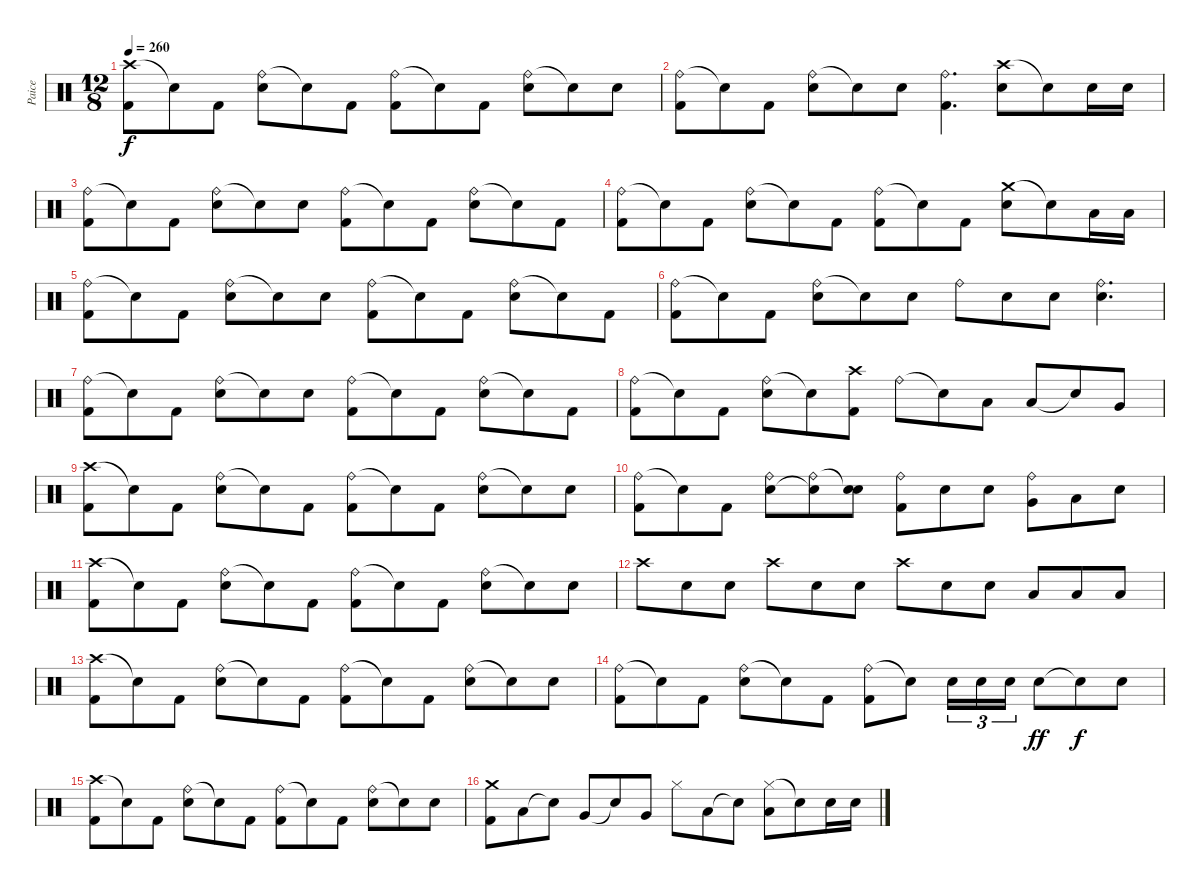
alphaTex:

\track ("Paice" "Paice") {instrument percussion}
\staff {score}
\articulation defaults
\ts (12 8)
\tempo 260
\clef neutral
\ks c
("Crash high (hit)" "Kick (hit) 2").8{dy f} "Snare (hit)"{t}.8 "Kick (hit) 2".8 ("Ride (bell)" "Electric Snare (hit)").8 "Snare (hit)"{t}.8 "Kick (hit) 2".8 ("Ride (bell)" "Kick (hit) 2").8 "Snare (hit)"{t}.8 "Kick (hit) 2".8 ("Ride (bell)" "Electric Snare (hit)").8 "Snare (hit)"{t}.8 "Electric Snare (hit)".8 |
("Ride (bell)" "Kick (hit) 2").8 "Snare (hit)"{t}.8 "Kick (hit) 2".8 ("Ride (bell)" "Electric Snare (hit)").8 "Snare (hit)"{t}.8 "Electric Snare (hit)".8 ("Ride (bell)" "Kick (hit) 2").4{d} ("Crash high (hit)" "Electric Snare (hit)").8 "Snare (hit)"{t}.8 "Electric Snare (hit)".16 "Electric Snare (hit)".16 |
("Ride (bell)" "Kick (hit) 2").8 "Snare (hit)"{t}.8 "Kick (hit) 2".8 ("Ride (bell)" "Electric Snare (hit)").8 "Snare (hit)"{t}.8 "Electric Snare (hit)".8 ("Ride (bell)" "Kick (hit) 2").8 "Snare (hit)"{t}.8 "Kick (hit) 2".8 ("Ride (bell)" "Electric Snare (hit)").8 "Snare (hit)"{t}.8 "Kick (hit) 2".8 |
("Ride (bell)" "Kick (hit) 2").8 "Snare (hit)"{t}.8 "Kick (hit) 2".8 ("Ride (bell)" "Electric Snare (hit)").8 "Snare (hit)"{t}.8 "Kick (hit) 2".8 ("Ride (bell)" "Kick (hit) 2").8 "Snare (hit)"{t}.8 "Kick (hit) 2".8 ("Crash medium (hit)" "Electric Snare (hit)").8 "Snare (hit)"{t}.8 "Low Tom (hit)".16 "Low Tom (hit)".16 |
("Ride (bell)" "Kick (hit) 2").8 "Snare (hit)"{t}.8 "Kick (hit) 2".8 ("Ride (bell)" "Electric Snare (hit)").8 "Snare (hit)"{t}.8 "Electric Snare (hit)".8 ("Ride (bell)" "Kick (hit) 2").8 "Snare (hit)"{t}.8 "Kick (hit) 2".8 ("Ride (bell)" "Electric Snare (hit)").8 "Snare (hit)"{t}.8 "Kick (hit) 2".8 |
("Ride (bell)" "Kick (hit) 2").8 "Snare (hit)"{t}.8 "Kick (hit) 2".8 ("Ride (bell)" "Electric Snare (hit)").8 "Snare (hit)"{t}.8 "Electric Snare (hit)".8 "Ride (bell)".8 "Electric Snare (hit)".8 "Electric Snare (hit)".8 ("Ride (bell)" "Electric Snare (hit)").4{d} |
("Ride (bell)" "Kick (hit) 2").8 "Snare (hit)"{t}.8 "Kick (hit) 2".8 ("Ride (bell)" "Electric Snare (hit)").8 "Snare (hit)"{t}.8 "Electric Snare (hit)".8 ("Ride (bell)" "Kick (hit) 2").8 "Snare (hit)"{t}.8 "Kick (hit) 2".8 ("Ride (bell)" "Electric Snare (hit)").8 "Snare (hit)"{t}.8 "Kick (hit) 2".8 |
("Ride (bell)" "Kick (hit) 2").8 "Snare (hit)"{t}.8 "Kick (hit) 2".8 ("Ride (bell)" "Electric Snare (hit)").8 "Snare (hit)"{t}.8 ("Crash high (hit)" "Kick (hit) 2").8 "Ride (bell)".8 "Snare (hit)"{t}.8 "Low Tom (hit)".8 "Low Tom (hit)".8 "Snare (hit)"{t}.8 "Very Low Tom (hit)".8 |
("Crash high (hit)" "Kick (hit) 2").8 "Snare (hit)"{t}.8 "Kick (hit) 2".8 ("Ride (bell)" "Electric Snare (hit)").8 "Snare (hit)"{t}.8 "Kick (hit) 2".8 ("Ride (bell)" "Kick (hit) 2").8 "Snare (hit)"{t}.8 "Kick (hit) 2".8 ("Ride (bell)" "Electric Snare (hit)").8 "Snare (hit)"{t}.8 "Electric Snare (hit)".8 |
("Ride (bell)" "Kick (hit) 2").8 "Snare (hit)"{t}.8 "Kick (hit) 2".8 ("Ride (bell)" "Electric Snare (hit)").8 ("Ride (bell)" "Snare (hit)"{t}).8 ("Snare (hit)"{t} "Electric Snare (hit)").8 ("Ride (bell)" "Kick (hit) 2").8 "Electric Snare (hit)".8 "Electric Snare (hit)".8 ("Ride (bell)" "Very Low Tom (hit)").8 "Low Tom (hit)".8 "Electric Snare (hit)".8 |
("Crash high (hit)" "Kick (hit) 2").8 "Snare (hit)"{t}.8 "Kick (hit) 2".8 ("Ride (bell)" "Electric Snare (hit)").8 "Snare (hit)"{t}.8 "Kick (hit) 2".8 ("Ride (bell)" "Kick (hit) 2").8 "Snare (hit)"{t}.8 "Kick (hit) 2".8 ("Ride (bell)" "Electric Snare (hit)").8 "Snare (hit)"{t}.8 "Electric Snare (hit)".8 |
"Crash high (hit)".8 "Electric Snare (hit)".8 "Electric Snare (hit)".8 "Crash high (hit)".8 "Electric Snare (hit)".8 "Electric Snare (hit)".8 "Crash high (hit)".8 "Electric Snare (hit)".8 "Electric Snare (hit)".8 "Low Tom (hit)".8 "Low Tom (hit)".8 "Low Tom (hit)".8 |
("Crash high (hit)" "Kick (hit) 2").8 "Snare (hit)"{t}.8 "Kick (hit) 2".8 ("Ride (bell)" "Electric Snare (hit)").8 "Snare (hit)"{t}.8 "Kick (hit) 2".8 ("Ride (bell)" "Kick (hit) 2").8 "Snare (hit)"{t}.8 "Kick (hit) 2".8 ("Ride (bell)" "Electric Snare (hit)").8 "Snare (hit)"{t}.8 "Electric Snare (hit)".8 |
("Ride (bell)" "Kick (hit) 2").8 "Snare (hit)"{t}.8 "Kick (hit) 2".8 ("Ride (bell)" "Electric Snare (hit)").8 "Snare (hit)"{t}.8 "Kick (hit) 2".8 ("Ride (bell)" "Kick (hit) 2").8 "Snare (hit)"{t}.8 "Electric Snare (hit)".16{tu (3 2)} "Electric Snare (hit)".16{tu (3 2)} "Electric Snare (hit)".16{tu (3 2)} "Electric Snare (hit)".8{dy ff} "Snare (hit)"{t}.8{dy f} "Electric Snare (hit)".8 |
("Crash high (hit)" "Kick (hit) 2").8 "Snare (hit)"{t}.8 "Kick (hit) 2".8 ("Ride (bell)" "Electric Snare (hit)").8 "Snare (hit)"{t}.8 "Kick (hit) 2".8 ("Ride (bell)" "Kick (hit) 2").8 "Snare (hit)"{t}.8 "Kick (hit) 2".8 ("Ride (bell)" "Electric Snare (hit)").8 "Snare (hit)"{t}.8 "Electric Snare (hit)".8 |
("Crash medium (hit)" "Kick (hit) 2").8 "Low Tom (hit)".8 "Snare (hit)"{t}.8 "Very Low Tom (hit)".8 "Snare (hit)"{t}.8 "Very Low Tom (hit)".8 "Hi-Hat (closed)".8 "Low Floor Tom (hit)".8 "Snare (hit)"{t}.8 ("Hi-Hat (closed)" "Low Floor Tom (hit)").8 "Snare (hit)"{t}.8 "Electric Snare (hit)".16 "Electric Snare (hit)".16
